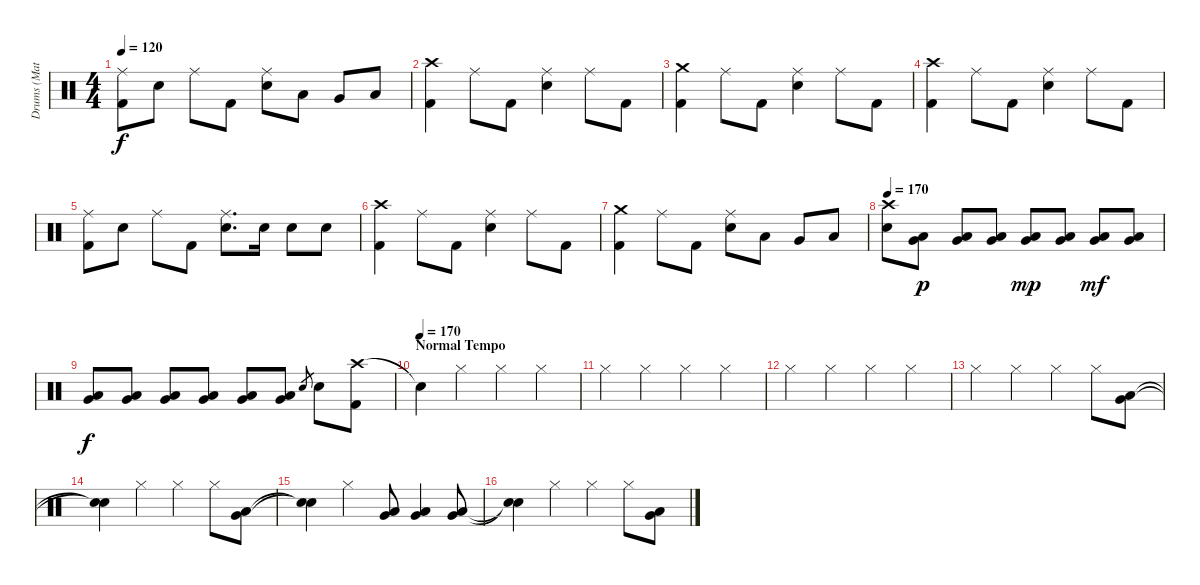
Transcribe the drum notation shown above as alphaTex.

\track ("Drums (Matt)" "Drums (Mat") {instrument percussion}
\staff {score}
\articulation defaults
\ts (4 4)
\tempo 120
\clef neutral
\ks c
("Ride (middle)" "Kick (hit) 2").8{dy f} "Snare (hit) 2".8 "Ride (middle)".8 "Kick (hit) 2".8 ("Ride (middle)" "Snare (hit) 2").8 "Low Tom (hit)".8 "Very Low Tom (hit)".8 "Low Floor Tom (hit)".8 |
("Crash high (hit)" "Kick (hit) 2").4 "Ride (middle)".8 "Kick (hit) 2".8 ("Ride (middle)" "Snare (hit) 2").4 "Ride (middle)".8 "Kick (hit) 2".8 |
("Crash medium (hit)" "Kick (hit) 2").4 "Ride (middle)".8 "Kick (hit) 2".8 ("Ride (middle)" "Snare (hit) 2").4 "Ride (middle)".8 "Kick (hit) 2".8 |
("Crash high (hit)" "Kick (hit) 2").4 "Ride (middle)".8 "Kick (hit) 2".8 ("Ride (middle)" "Snare (hit) 2").4 "Ride (middle)".8 "Kick (hit) 2".8 |
("Ride (middle)" "Kick (hit) 2").8 "Snare (hit) 2".8 "Ride (middle)".8 "Kick (hit) 2".8 ("Ride (middle)" "Snare (hit) 2").8{d} "Snare (hit) 2".16 "Snare (hit) 2".8 "Snare (hit) 2".8 |
("Crash high (hit)" "Kick (hit) 2").4 "Ride (middle)".8 "Kick (hit) 2".8 ("Ride (middle)" "Snare (hit) 2").4 "Ride (middle)".8 "Kick (hit) 2".8 |
("Crash medium (hit)" "Kick (hit) 2").4 "Ride (middle)".8 "Kick (hit) 2".8 ("Ride (middle)" "Snare (hit) 2").8 "Low Tom (hit)".8 "Very Low Tom (hit)".8 "Low Floor Tom (hit)".8 |
\tempo 170
("Crash high (hit)" "Snare (hit) 2").8 ("Very Low Tom (hit)" "Low Tom (hit)").8{dy p} ("Very Low Tom (hit)" "Low Tom (hit)").8 ("Very Low Tom (hit)" "Low Tom (hit)").8 ("Very Low Tom (hit)" "Low Tom (hit)").8{dy mp} ("Very Low Tom (hit)" "Low Tom (hit)").8 ("Very Low Tom (hit)" "Low Tom (hit)").8{dy mf} ("Very Low Tom (hit)" "Low Tom (hit)").8 |
("Very Low Tom (hit)" "Low Tom (hit)").8{dy f} ("Very Low Tom (hit)" "Low Tom (hit)").8 ("Very Low Tom (hit)" "Low Tom (hit)").8 ("Very Low Tom (hit)" "Low Tom (hit)").8 ("Very Low Tom (hit)" "Low Tom (hit)").8 ("Very Low Tom (hit)" "Low Tom (hit)").8 "Snare (hit) 2".8{gr} "Snare (hit) 2".8 ("Crash high (hit)" "Kick (hit) 2").8 |
\section ("" "Normal Tempo")
\tempo (170)
"Snare (hit)"{t}.4 "Hi-Hat (closed)".4 "Hi-Hat (closed)".4 "Hi-Hat (closed)".4 |
"Hi-Hat (closed)".4 "Hi-Hat (closed)".4 "Hi-Hat (closed)".4 "Hi-Hat (closed)".4 |
"Hi-Hat (closed)".4 "Hi-Hat (closed)".4 "Hi-Hat (closed)".4 "Hi-Hat (closed)".4 |
"Hi-Hat (closed)".4 "Hi-Hat (closed)".4 "Hi-Hat (closed)".4 "Hi-Hat (closed)".8 ("Low Tom (hit)" "Very Low Tom (hit)").8 |
("Snare (hit)"{t} "Snare (hit)"{t}).4 "Hi-Hat (closed)".4 "Hi-Hat (closed)".4 "Hi-Hat (closed)".8 ("Low Tom (hit)" "Very Low Tom (hit)").8 |
("Snare (hit)"{t} "Snare (hit)"{t}).4 "Hi-Hat (closed)".4 ("Low Tom (hit)" "Very Low Tom (hit)").8 ("Low Tom (hit)" "Very Low Tom (hit)").4 ("Low Tom (hit)" "Very Low Tom (hit)").8 |
("Snare (hit)"{t} "Snare (hit)"{t}).4 "Hi-Hat (closed)".4 "Hi-Hat (closed)".4 "Hi-Hat (closed)".8 ("Low Tom (hit)" "Very Low Tom (hit)").8
